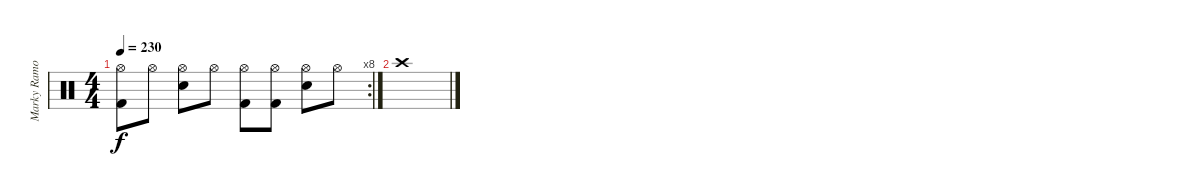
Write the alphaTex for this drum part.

\track ("Marky Ramone" "Marky Ramo") {instrument percussion}
\staff {score}
\articulation defaults
\rc 8
\ts (4 4)
\tempo 230
\clef neutral
\ks c
("Hi-Hat (open)" "Kick (hit) 2").8{dy f} "Hi-Hat (open)".8 ("Hi-Hat (open)" "Electric Snare (hit)").8 "Hi-Hat (open)".8 ("Hi-Hat (open)" "Kick (hit) 2").8 ("Hi-Hat (open)" "Kick (hit) 2").8 ("Hi-Hat (open)" "Electric Snare (hit)").8 "Hi-Hat (open)".8 |
"Crash high (hit)".1
